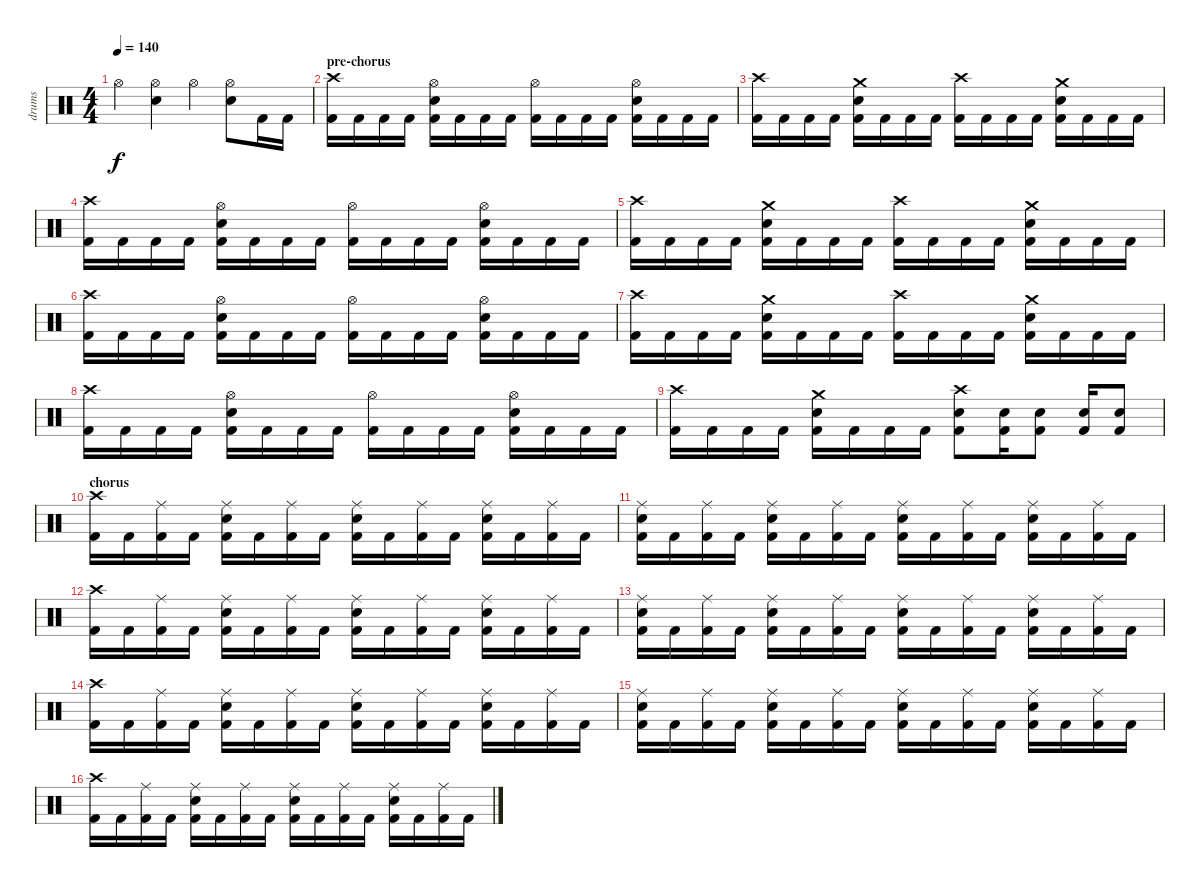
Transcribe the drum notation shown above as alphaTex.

\track ("drums" "drums") {instrument percussion}
\staff {score}
\articulation defaults
\ts (4 4)
\tempo 140
\clef neutral
\ks c "Hi-Hat (open)".4{dy f}
("Hi-Hat (open)" "Electric Snare (hit)").4 "Hi-Hat (open)".4 ("Hi-Hat (open)" "Electric Snare (hit)").8 "Kick (hit) 2".16 "Kick (hit) 2".16 |
\section ("" "pre-chorus")
("Crash high (hit)" "Kick (hit) 2").16 "Kick (hit) 2".16 "Kick (hit) 2".16 "Kick (hit) 2".16 ("Hi-Hat (open)" "Electric Snare (hit)" "Kick (hit) 2").16 "Kick (hit) 2".16 "Kick (hit) 2".16 "Kick (hit) 2".16 ("Hi-Hat (open)" "Kick (hit) 2").16 "Kick (hit) 2".16 "Kick (hit) 2".16 "Kick (hit) 2".16 ("Hi-Hat (open)" "Electric Snare (hit)" "Kick (hit) 2").16 "Kick (hit) 2".16 "Kick (hit) 2".16 "Kick (hit) 2".16 |
("Crash high (hit)" "Kick (hit) 2").16 "Kick (hit) 2".16 "Kick (hit) 2".16 "Kick (hit) 2".16 ("Crash medium (hit)" "Electric Snare (hit)" "Kick (hit) 2").16 "Kick (hit) 2".16 "Kick (hit) 2".16 "Kick (hit) 2".16 ("Crash high (hit)" "Kick (hit) 2").16 "Kick (hit) 2".16 "Kick (hit) 2".16 "Kick (hit) 2".16 ("Crash medium (hit)" "Electric Snare (hit)" "Kick (hit) 2").16 "Kick (hit) 2".16 "Kick (hit) 2".16 "Kick (hit) 2".16 |
("Crash high (hit)" "Kick (hit) 2").16 "Kick (hit) 2".16 "Kick (hit) 2".16 "Kick (hit) 2".16 ("Hi-Hat (open)" "Electric Snare (hit)" "Kick (hit) 2").16 "Kick (hit) 2".16 "Kick (hit) 2".16 "Kick (hit) 2".16 ("Hi-Hat (open)" "Kick (hit) 2").16 "Kick (hit) 2".16 "Kick (hit) 2".16 "Kick (hit) 2".16 ("Hi-Hat (open)" "Electric Snare (hit)" "Kick (hit) 2").16 "Kick (hit) 2".16 "Kick (hit) 2".16 "Kick (hit) 2".16 |
("Crash high (hit)" "Kick (hit) 2").16 "Kick (hit) 2".16 "Kick (hit) 2".16 "Kick (hit) 2".16 ("Crash medium (hit)" "Electric Snare (hit)" "Kick (hit) 2").16 "Kick (hit) 2".16 "Kick (hit) 2".16 "Kick (hit) 2".16 ("Crash high (hit)" "Kick (hit) 2").16 "Kick (hit) 2".16 "Kick (hit) 2".16 "Kick (hit) 2".16 ("Crash medium (hit)" "Electric Snare (hit)" "Kick (hit) 2").16 "Kick (hit) 2".16 "Kick (hit) 2".16 "Kick (hit) 2".16 |
("Crash high (hit)" "Kick (hit) 2").16 "Kick (hit) 2".16 "Kick (hit) 2".16 "Kick (hit) 2".16 ("Hi-Hat (open)" "Electric Snare (hit)" "Kick (hit) 2").16 "Kick (hit) 2".16 "Kick (hit) 2".16 "Kick (hit) 2".16 ("Hi-Hat (open)" "Kick (hit) 2").16 "Kick (hit) 2".16 "Kick (hit) 2".16 "Kick (hit) 2".16 ("Hi-Hat (open)" "Electric Snare (hit)" "Kick (hit) 2").16 "Kick (hit) 2".16 "Kick (hit) 2".16 "Kick (hit) 2".16 |
("Crash high (hit)" "Kick (hit) 2").16 "Kick (hit) 2".16 "Kick (hit) 2".16 "Kick (hit) 2".16 ("Crash medium (hit)" "Electric Snare (hit)" "Kick (hit) 2").16 "Kick (hit) 2".16 "Kick (hit) 2".16 "Kick (hit) 2".16 ("Crash high (hit)" "Kick (hit) 2").16 "Kick (hit) 2".16 "Kick (hit) 2".16 "Kick (hit) 2".16 ("Crash medium (hit)" "Electric Snare (hit)" "Kick (hit) 2").16 "Kick (hit) 2".16 "Kick (hit) 2".16 "Kick (hit) 2".16 |
("Crash high (hit)" "Kick (hit) 2").16 "Kick (hit) 2".16 "Kick (hit) 2".16 "Kick (hit) 2".16 ("Hi-Hat (open)" "Electric Snare (hit)" "Kick (hit) 2").16 "Kick (hit) 2".16 "Kick (hit) 2".16 "Kick (hit) 2".16 ("Hi-Hat (open)" "Kick (hit) 2").16 "Kick (hit) 2".16 "Kick (hit) 2".16 "Kick (hit) 2".16 ("Hi-Hat (open)" "Electric Snare (hit)" "Kick (hit) 2").16 "Kick (hit) 2".16 "Kick (hit) 2".16 "Kick (hit) 2".16 |
("Crash high (hit)" "Kick (hit) 2").16 "Kick (hit) 2".16 "Kick (hit) 2".16 "Kick (hit) 2".16 ("Crash medium (hit)" "Electric Snare (hit)" "Kick (hit) 2").16 "Kick (hit) 2".16 "Kick (hit) 2".16 "Kick (hit) 2".16 ("Crash high (hit)" "Electric Snare (hit)" "Kick (hit) 2").8 ("Electric Snare (hit)" "Kick (hit) 2").16 ("Electric Snare (hit)" "Kick (hit) 2").8 ("Electric Snare (hit)" "Kick (hit) 2").16 ("Electric Snare (hit)" "Kick (hit) 2").8 |
\section ("" "chorus")
("Crash high (hit)" "Kick (hit) 2").16 "Kick (hit) 2".16 ("Ride (middle)" "Kick (hit) 2").16 "Kick (hit) 2".16 ("Ride (middle)" "Electric Snare (hit)" "Kick (hit) 2").16 "Kick (hit) 2".16 ("Ride (middle)" "Kick (hit) 2").16 "Kick (hit) 2".16 ("Ride (middle)" "Electric Snare (hit)" "Kick (hit) 2").16 "Kick (hit) 2".16 ("Ride (middle)" "Kick (hit) 2").16 "Kick (hit) 2".16 ("Ride (middle)" "Electric Snare (hit)" "Kick (hit) 2").16 "Kick (hit) 2".16 ("Ride (middle)" "Kick (hit) 2").16 "Kick (hit) 2".16 |
("Ride (middle)" "Electric Snare (hit)" "Kick (hit) 2").16 "Kick (hit) 2".16 ("Ride (middle)" "Kick (hit) 2").16 "Kick (hit) 2".16 ("Ride (middle)" "Electric Snare (hit)" "Kick (hit) 2").16 "Kick (hit) 2".16 ("Ride (middle)" "Kick (hit) 2").16 "Kick (hit) 2".16 ("Ride (middle)" "Electric Snare (hit)" "Kick (hit) 2").16 "Kick (hit) 2".16 ("Ride (middle)" "Kick (hit) 2").16 "Kick (hit) 2".16 ("Ride (middle)" "Electric Snare (hit)" "Kick (hit) 2").16 "Kick (hit) 2".16 ("Ride (middle)" "Kick (hit) 2").16 "Kick (hit) 2".16 |
("Crash high (hit)" "Kick (hit) 2").16 "Kick (hit) 2".16 ("Ride (middle)" "Kick (hit) 2").16 "Kick (hit) 2".16 ("Ride (middle)" "Electric Snare (hit)" "Kick (hit) 2").16 "Kick (hit) 2".16 ("Ride (middle)" "Kick (hit) 2").16 "Kick (hit) 2".16 ("Ride (middle)" "Electric Snare (hit)" "Kick (hit) 2").16 "Kick (hit) 2".16 ("Ride (middle)" "Kick (hit) 2").16 "Kick (hit) 2".16 ("Ride (middle)" "Electric Snare (hit)" "Kick (hit) 2").16 "Kick (hit) 2".16 ("Ride (middle)" "Kick (hit) 2").16 "Kick (hit) 2".16 |
("Ride (middle)" "Electric Snare (hit)" "Kick (hit) 2").16 "Kick (hit) 2".16 ("Ride (middle)" "Kick (hit) 2").16 "Kick (hit) 2".16 ("Ride (middle)" "Electric Snare (hit)" "Kick (hit) 2").16 "Kick (hit) 2".16 ("Ride (middle)" "Kick (hit) 2").16 "Kick (hit) 2".16 ("Ride (middle)" "Electric Snare (hit)" "Kick (hit) 2").16 "Kick (hit) 2".16 ("Ride (middle)" "Kick (hit) 2").16 "Kick (hit) 2".16 ("Ride (middle)" "Electric Snare (hit)" "Kick (hit) 2").16 "Kick (hit) 2".16 ("Ride (middle)" "Kick (hit) 2").16 "Kick (hit) 2".16 |
("Crash high (hit)" "Kick (hit) 2").16 "Kick (hit) 2".16 ("Ride (middle)" "Kick (hit) 2").16 "Kick (hit) 2".16 ("Ride (middle)" "Electric Snare (hit)" "Kick (hit) 2").16 "Kick (hit) 2".16 ("Ride (middle)" "Kick (hit) 2").16 "Kick (hit) 2".16 ("Ride (middle)" "Electric Snare (hit)" "Kick (hit) 2").16 "Kick (hit) 2".16 ("Ride (middle)" "Kick (hit) 2").16 "Kick (hit) 2".16 ("Ride (middle)" "Electric Snare (hit)" "Kick (hit) 2").16 "Kick (hit) 2".16 ("Ride (middle)" "Kick (hit) 2").16 "Kick (hit) 2".16 |
("Ride (middle)" "Electric Snare (hit)" "Kick (hit) 2").16 "Kick (hit) 2".16 ("Ride (middle)" "Kick (hit) 2").16 "Kick (hit) 2".16 ("Ride (middle)" "Electric Snare (hit)" "Kick (hit) 2").16 "Kick (hit) 2".16 ("Ride (middle)" "Kick (hit) 2").16 "Kick (hit) 2".16 ("Ride (middle)" "Electric Snare (hit)" "Kick (hit) 2").16 "Kick (hit) 2".16 ("Ride (middle)" "Kick (hit) 2").16 "Kick (hit) 2".16 ("Ride (middle)" "Electric Snare (hit)" "Kick (hit) 2").16 "Kick (hit) 2".16 ("Ride (middle)" "Kick (hit) 2").16 "Kick (hit) 2".16 |
("Crash high (hit)" "Kick (hit) 2").16 "Kick (hit) 2".16 ("Ride (middle)" "Kick (hit) 2").16 "Kick (hit) 2".16 ("Ride (middle)" "Electric Snare (hit)" "Kick (hit) 2").16 "Kick (hit) 2".16 ("Ride (middle)" "Kick (hit) 2").16 "Kick (hit) 2".16 ("Ride (middle)" "Electric Snare (hit)" "Kick (hit) 2").16 "Kick (hit) 2".16 ("Ride (middle)" "Kick (hit) 2").16 "Kick (hit) 2".16 ("Ride (middle)" "Electric Snare (hit)" "Kick (hit) 2").16 "Kick (hit) 2".16 ("Ride (middle)" "Kick (hit) 2").16 "Kick (hit) 2".16
